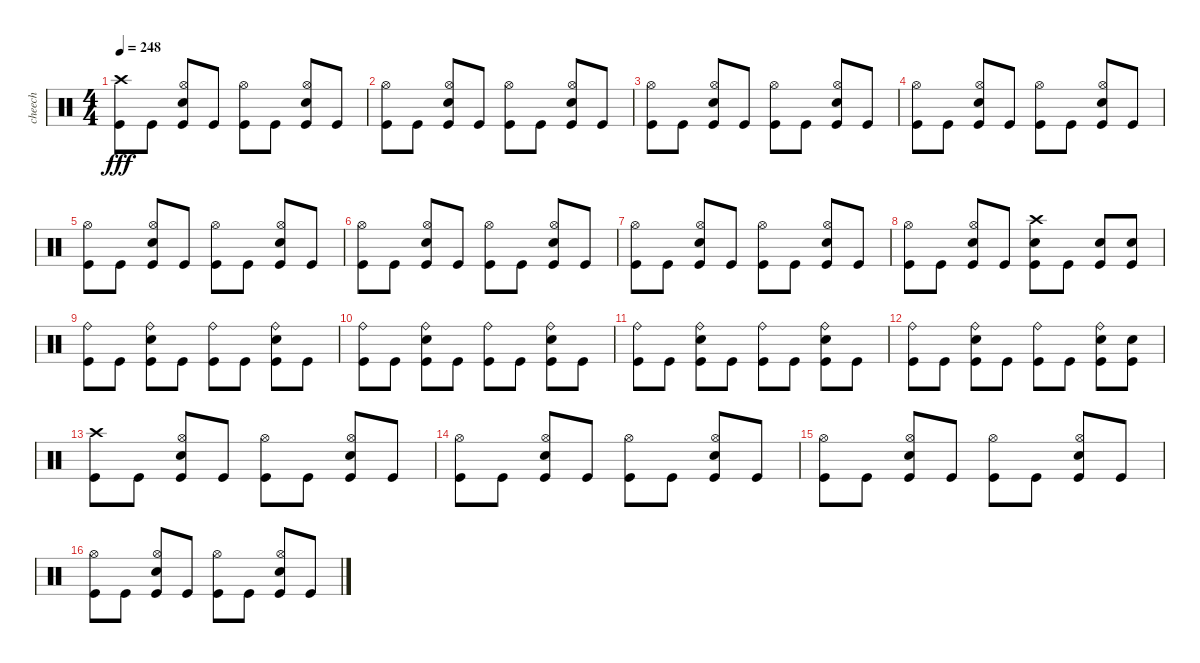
\track ("cheech" "cheech") {instrument percussion}
\staff {score}
\articulation defaults
\ts (4 4)
\tempo 248
\clef neutral
\ks c
("Crash high (hit)" "Kick (hit)").8{dy fff} "Kick (hit)".8 ("Hi-Hat (open)" "Electric Snare (hit)" "Kick (hit)").8 "Kick (hit)".8 ("Hi-Hat (open)" "Kick (hit)").8 "Kick (hit)".8 ("Hi-Hat (open)" "Electric Snare (hit)" "Kick (hit)").8 "Kick (hit)".8 |
("Hi-Hat (open)" "Kick (hit)").8 "Kick (hit)".8 ("Hi-Hat (open)" "Electric Snare (hit)" "Kick (hit)").8 "Kick (hit)".8 ("Hi-Hat (open)" "Kick (hit)").8 "Kick (hit)".8 ("Hi-Hat (open)" "Electric Snare (hit)" "Kick (hit)").8 "Kick (hit)".8 |
("Hi-Hat (open)" "Kick (hit)").8 "Kick (hit)".8 ("Hi-Hat (open)" "Electric Snare (hit)" "Kick (hit)").8 "Kick (hit)".8 ("Hi-Hat (open)" "Kick (hit)").8 "Kick (hit)".8 ("Hi-Hat (open)" "Electric Snare (hit)" "Kick (hit)").8 "Kick (hit)".8 |
("Hi-Hat (open)" "Kick (hit)").8 "Kick (hit)".8 ("Hi-Hat (open)" "Electric Snare (hit)" "Kick (hit)").8 "Kick (hit)".8 ("Hi-Hat (open)" "Kick (hit)").8 "Kick (hit)".8 ("Hi-Hat (open)" "Electric Snare (hit)" "Kick (hit)").8 "Kick (hit)".8 |
("Hi-Hat (open)" "Kick (hit)").8 "Kick (hit)".8 ("Hi-Hat (open)" "Electric Snare (hit)" "Kick (hit)").8 "Kick (hit)".8 ("Hi-Hat (open)" "Kick (hit)").8 "Kick (hit)".8 ("Hi-Hat (open)" "Electric Snare (hit)" "Kick (hit)").8 "Kick (hit)".8 |
("Hi-Hat (open)" "Kick (hit)").8 "Kick (hit)".8 ("Hi-Hat (open)" "Electric Snare (hit)" "Kick (hit)").8 "Kick (hit)".8 ("Hi-Hat (open)" "Kick (hit)").8 "Kick (hit)".8 ("Hi-Hat (open)" "Electric Snare (hit)" "Kick (hit)").8 "Kick (hit)".8 |
("Hi-Hat (open)" "Kick (hit)").8 "Kick (hit)".8 ("Hi-Hat (open)" "Electric Snare (hit)" "Kick (hit)").8 "Kick (hit)".8 ("Hi-Hat (open)" "Kick (hit)").8 "Kick (hit)".8 ("Hi-Hat (open)" "Electric Snare (hit)" "Kick (hit)").8 "Kick (hit)".8 |
("Hi-Hat (open)" "Kick (hit)").8 "Kick (hit)".8 ("Hi-Hat (open)" "Electric Snare (hit)" "Kick (hit)").8 "Kick (hit)".8 ("Crash high (hit)" "Electric Snare (hit)" "Kick (hit)").8 "Kick (hit)".8 ("Electric Snare (hit)" "Kick (hit)").8 ("Electric Snare (hit)" "Kick (hit)").8 |
("Ride (bell)" "Kick (hit)").8 "Kick (hit)".8 ("Ride (bell)" "Electric Snare (hit)" "Kick (hit)").8 "Kick (hit)".8 ("Ride (bell)" "Kick (hit)").8 "Kick (hit)".8 ("Ride (bell)" "Electric Snare (hit)" "Kick (hit)").8 "Kick (hit)".8 |
("Ride (bell)" "Kick (hit)").8 "Kick (hit)".8 ("Ride (bell)" "Electric Snare (hit)" "Kick (hit)").8 "Kick (hit)".8 ("Ride (bell)" "Kick (hit)").8 "Kick (hit)".8 ("Ride (bell)" "Electric Snare (hit)" "Kick (hit)").8 "Kick (hit)".8 |
("Ride (bell)" "Kick (hit)").8 "Kick (hit)".8 ("Ride (bell)" "Electric Snare (hit)" "Kick (hit)").8 "Kick (hit)".8 ("Ride (bell)" "Kick (hit)").8 "Kick (hit)".8 ("Ride (bell)" "Electric Snare (hit)" "Kick (hit)").8 "Kick (hit)".8 |
("Ride (bell)" "Kick (hit)").8 "Kick (hit)".8 ("Ride (bell)" "Electric Snare (hit)" "Kick (hit)").8 "Kick (hit)".8 ("Ride (bell)" "Kick (hit)").8 "Kick (hit)".8 ("Ride (bell)" "Electric Snare (hit)" "Kick (hit)").8 ("Electric Snare (hit)" "Kick (hit)").8 |
("Crash high (hit)" "Kick (hit)").8 "Kick (hit)".8 ("Hi-Hat (open)" "Electric Snare (hit)" "Kick (hit)").8 "Kick (hit)".8 ("Hi-Hat (open)" "Kick (hit)").8 "Kick (hit)".8 ("Hi-Hat (open)" "Electric Snare (hit)" "Kick (hit)").8 "Kick (hit)".8 |
("Hi-Hat (open)" "Kick (hit)").8 "Kick (hit)".8 ("Hi-Hat (open)" "Electric Snare (hit)" "Kick (hit)").8 "Kick (hit)".8 ("Hi-Hat (open)" "Kick (hit)").8 "Kick (hit)".8 ("Hi-Hat (open)" "Electric Snare (hit)" "Kick (hit)").8 "Kick (hit)".8 |
("Hi-Hat (open)" "Kick (hit)").8 "Kick (hit)".8 ("Hi-Hat (open)" "Electric Snare (hit)" "Kick (hit)").8 "Kick (hit)".8 ("Hi-Hat (open)" "Kick (hit)").8 "Kick (hit)".8 ("Hi-Hat (open)" "Electric Snare (hit)" "Kick (hit)").8 "Kick (hit)".8 |
("Hi-Hat (open)" "Kick (hit)").8 "Kick (hit)".8 ("Hi-Hat (open)" "Electric Snare (hit)" "Kick (hit)").8 "Kick (hit)".8 ("Hi-Hat (open)" "Kick (hit)").8 "Kick (hit)".8 ("Hi-Hat (open)" "Electric Snare (hit)" "Kick (hit)").8 "Kick (hit)".8
